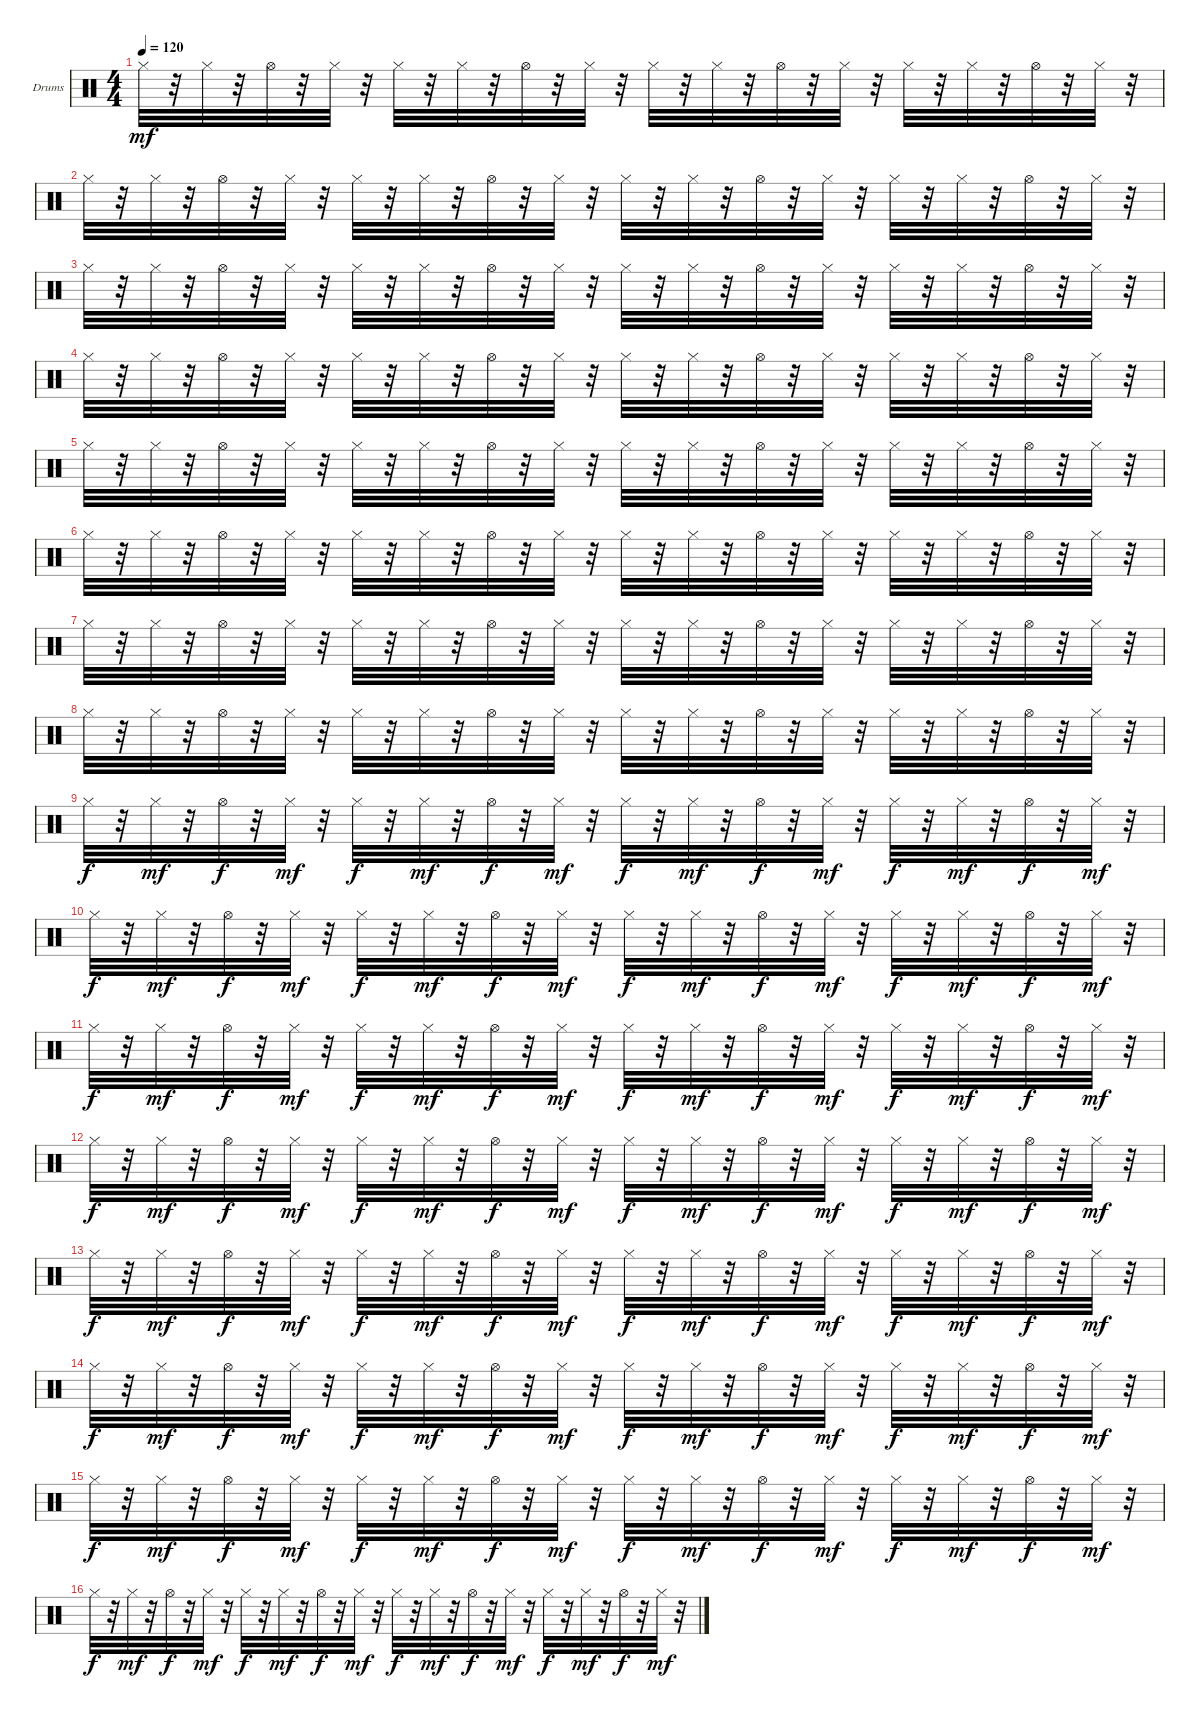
\defaultSystemsLayout 4
\bracketExtendMode groupsimilarinstruments
\firstSystemTrackNameOrientation horizontal
\otherSystemsTrackNameOrientation horizontal
\track ("Drumkit" "Drums") {instrument percussion}
\staff {score}
\articulation defaults
\ts (4 4)
\tempo 120
\clef neutral
\scale
0.333333
\ks c "Hi-Hat (closed)".32{dy mf}
r.32 "Hi-Hat (closed)".32 r.32 "Hi-Hat (open)".32 r.32 "Hi-Hat (closed)".32 r.32 "Hi-Hat (closed)".32 r.32 "Hi-Hat (closed)".32 r.32 "Hi-Hat (open)".32 r.32 "Hi-Hat (closed)".32 r.32 "Hi-Hat (closed)".32 r.32 "Hi-Hat (closed)".32 r.32 "Hi-Hat (open)".32 r.32 "Hi-Hat (closed)".32 r.32 "Hi-Hat (closed)".32 r.32 "Hi-Hat (closed)".32 r.32 "Hi-Hat (open)".32 r.32 "Hi-Hat (closed)".32 r.32 |
\scale
0.333333 "Hi-Hat (closed)".32 r.32 "Hi-Hat (closed)".32 r.32 "Hi-Hat (open)".32 r.32 "Hi-Hat (closed)".32 r.32 "Hi-Hat (closed)".32 r.32 "Hi-Hat (closed)".32 r.32 "Hi-Hat (open)".32 r.32 "Hi-Hat (closed)".32 r.32 "Hi-Hat (closed)".32 r.32 "Hi-Hat (closed)".32 r.32 "Hi-Hat (open)".32 r.32 "Hi-Hat (closed)".32 r.32 "Hi-Hat (closed)".32 r.32 "Hi-Hat (closed)".32 r.32 "Hi-Hat (open)".32 r.32 "Hi-Hat (closed)".32 r.32 |
\scale
0.333333 "Hi-Hat (closed)".32 r.32 "Hi-Hat (closed)".32 r.32 "Hi-Hat (open)".32 r.32 "Hi-Hat (closed)".32 r.32 "Hi-Hat (closed)".32 r.32 "Hi-Hat (closed)".32 r.32 "Hi-Hat (open)".32 r.32 "Hi-Hat (closed)".32 r.32 "Hi-Hat (closed)".32 r.32 "Hi-Hat (closed)".32 r.32 "Hi-Hat (open)".32 r.32 "Hi-Hat (closed)".32 r.32 "Hi-Hat (closed)".32 r.32 "Hi-Hat (closed)".32 r.32 "Hi-Hat (open)".32 r.32 "Hi-Hat (closed)".32 r.32 |
\scale
0.333333 "Hi-Hat (closed)".32 r.32 "Hi-Hat (closed)".32 r.32 "Hi-Hat (open)".32 r.32 "Hi-Hat (closed)".32 r.32 "Hi-Hat (closed)".32 r.32 "Hi-Hat (closed)".32 r.32 "Hi-Hat (open)".32 r.32 "Hi-Hat (closed)".32 r.32 "Hi-Hat (closed)".32 r.32 "Hi-Hat (closed)".32 r.32 "Hi-Hat (open)".32 r.32 "Hi-Hat (closed)".32 r.32 "Hi-Hat (closed)".32 r.32 "Hi-Hat (closed)".32 r.32 "Hi-Hat (open)".32 r.32 "Hi-Hat (closed)".32 r.32 |
\scale
0.333333 "Hi-Hat (closed)".32 r.32 "Hi-Hat (closed)".32 r.32 "Hi-Hat (open)".32 r.32 "Hi-Hat (closed)".32 r.32 "Hi-Hat (closed)".32 r.32 "Hi-Hat (closed)".32 r.32 "Hi-Hat (open)".32 r.32 "Hi-Hat (closed)".32 r.32 "Hi-Hat (closed)".32 r.32 "Hi-Hat (closed)".32 r.32 "Hi-Hat (open)".32 r.32 "Hi-Hat (closed)".32 r.32 "Hi-Hat (closed)".32 r.32 "Hi-Hat (closed)".32 r.32 "Hi-Hat (open)".32 r.32 "Hi-Hat (closed)".32 r.32 |
\scale
0.333333 "Hi-Hat (closed)".32 r.32 "Hi-Hat (closed)".32 r.32 "Hi-Hat (open)".32 r.32 "Hi-Hat (closed)".32 r.32 "Hi-Hat (closed)".32 r.32 "Hi-Hat (closed)".32 r.32 "Hi-Hat (open)".32 r.32 "Hi-Hat (closed)".32 r.32 "Hi-Hat (closed)".32 r.32 "Hi-Hat (closed)".32 r.32 "Hi-Hat (open)".32 r.32 "Hi-Hat (closed)".32 r.32 "Hi-Hat (closed)".32 r.32 "Hi-Hat (closed)".32 r.32 "Hi-Hat (open)".32 r.32 "Hi-Hat (closed)".32 r.32 |
"Hi-Hat (closed)".32 r.32 "Hi-Hat (closed)".32 r.32 "Hi-Hat (open)".32 r.32 "Hi-Hat (closed)".32 r.32 "Hi-Hat (closed)".32 r.32 "Hi-Hat (closed)".32 r.32 "Hi-Hat (open)".32 r.32 "Hi-Hat (closed)".32 r.32 "Hi-Hat (closed)".32 r.32 "Hi-Hat (closed)".32 r.32 "Hi-Hat (open)".32 r.32 "Hi-Hat (closed)".32 r.32 "Hi-Hat (closed)".32 r.32 "Hi-Hat (closed)".32 r.32 "Hi-Hat (open)".32 r.32 "Hi-Hat (closed)".32 r.32 |
"Hi-Hat (closed)".32 r.32 "Hi-Hat (closed)".32 r.32 "Hi-Hat (open)".32 r.32 "Hi-Hat (closed)".32 r.32 "Hi-Hat (closed)".32 r.32 "Hi-Hat (closed)".32 r.32 "Hi-Hat (open)".32 r.32 "Hi-Hat (closed)".32 r.32 "Hi-Hat (closed)".32 r.32 "Hi-Hat (closed)".32 r.32 "Hi-Hat (open)".32 r.32 "Hi-Hat (closed)".32 r.32 "Hi-Hat (closed)".32 r.32 "Hi-Hat (closed)".32 r.32 "Hi-Hat (open)".32 r.32 "Hi-Hat (closed)".32 r.32 |
"Hi-Hat (closed)".32{dy f} r.32 "Hi-Hat (closed)".32{dy mf} r.32 "Hi-Hat (open)".32{dy f} r.32 "Hi-Hat (closed)".32{dy mf} r.32 "Hi-Hat (closed)".32{dy f} r.32 "Hi-Hat (closed)".32{dy mf} r.32 "Hi-Hat (open)".32{dy f} r.32 "Hi-Hat (closed)".32{dy mf} r.32 "Hi-Hat (closed)".32{dy f} r.32 "Hi-Hat (closed)".32{dy mf} r.32 "Hi-Hat (open)".32{dy f} r.32 "Hi-Hat (closed)".32{dy mf} r.32 "Hi-Hat (closed)".32{dy f} r.32 "Hi-Hat (closed)".32{dy mf} r.32 "Hi-Hat (open)".32{dy f} r.32 "Hi-Hat (closed)".32{dy mf} r.32 |
"Hi-Hat (closed)".32{dy f} r.32 "Hi-Hat (closed)".32{dy mf} r.32 "Hi-Hat (open)".32{dy f} r.32 "Hi-Hat (closed)".32{dy mf} r.32 "Hi-Hat (closed)".32{dy f} r.32 "Hi-Hat (closed)".32{dy mf} r.32 "Hi-Hat (open)".32{dy f} r.32 "Hi-Hat (closed)".32{dy mf} r.32 "Hi-Hat (closed)".32{dy f} r.32 "Hi-Hat (closed)".32{dy mf} r.32 "Hi-Hat (open)".32{dy f} r.32 "Hi-Hat (closed)".32{dy mf} r.32 "Hi-Hat (closed)".32{dy f} r.32 "Hi-Hat (closed)".32{dy mf} r.32 "Hi-Hat (open)".32{dy f} r.32 "Hi-Hat (closed)".32{dy mf} r.32 |
"Hi-Hat (closed)".32{dy f} r.32 "Hi-Hat (closed)".32{dy mf} r.32 "Hi-Hat (open)".32{dy f} r.32 "Hi-Hat (closed)".32{dy mf} r.32 "Hi-Hat (closed)".32{dy f} r.32 "Hi-Hat (closed)".32{dy mf} r.32 "Hi-Hat (open)".32{dy f} r.32 "Hi-Hat (closed)".32{dy mf} r.32 "Hi-Hat (closed)".32{dy f} r.32 "Hi-Hat (closed)".32{dy mf} r.32 "Hi-Hat (open)".32{dy f} r.32 "Hi-Hat (closed)".32{dy mf} r.32 "Hi-Hat (closed)".32{dy f} r.32 "Hi-Hat (closed)".32{dy mf} r.32 "Hi-Hat (open)".32{dy f} r.32 "Hi-Hat (closed)".32{dy mf} r.32 |
"Hi-Hat (closed)".32{dy f} r.32 "Hi-Hat (closed)".32{dy mf} r.32 "Hi-Hat (open)".32{dy f} r.32 "Hi-Hat (closed)".32{dy mf} r.32 "Hi-Hat (closed)".32{dy f} r.32 "Hi-Hat (closed)".32{dy mf} r.32 "Hi-Hat (open)".32{dy f} r.32 "Hi-Hat (closed)".32{dy mf} r.32 "Hi-Hat (closed)".32{dy f} r.32 "Hi-Hat (closed)".32{dy mf} r.32 "Hi-Hat (open)".32{dy f} r.32 "Hi-Hat (closed)".32{dy mf} r.32 "Hi-Hat (closed)".32{dy f} r.32 "Hi-Hat (closed)".32{dy mf} r.32 "Hi-Hat (open)".32{dy f} r.32 "Hi-Hat (closed)".32{dy mf} r.32 |
"Hi-Hat (closed)".32{dy f} r.32 "Hi-Hat (closed)".32{dy mf} r.32 "Hi-Hat (open)".32{dy f} r.32 "Hi-Hat (closed)".32{dy mf} r.32 "Hi-Hat (closed)".32{dy f} r.32 "Hi-Hat (closed)".32{dy mf} r.32 "Hi-Hat (open)".32{dy f} r.32 "Hi-Hat (closed)".32{dy mf} r.32 "Hi-Hat (closed)".32{dy f} r.32 "Hi-Hat (closed)".32{dy mf} r.32 "Hi-Hat (open)".32{dy f} r.32 "Hi-Hat (closed)".32{dy mf} r.32 "Hi-Hat (closed)".32{dy f} r.32 "Hi-Hat (closed)".32{dy mf} r.32 "Hi-Hat (open)".32{dy f} r.32 "Hi-Hat (closed)".32{dy mf} r.32 |
"Hi-Hat (closed)".32{dy f} r.32 "Hi-Hat (closed)".32{dy mf} r.32 "Hi-Hat (open)".32{dy f} r.32 "Hi-Hat (closed)".32{dy mf} r.32 "Hi-Hat (closed)".32{dy f} r.32 "Hi-Hat (closed)".32{dy mf} r.32 "Hi-Hat (open)".32{dy f} r.32 "Hi-Hat (closed)".32{dy mf} r.32 "Hi-Hat (closed)".32{dy f} r.32 "Hi-Hat (closed)".32{dy mf} r.32 "Hi-Hat (open)".32{dy f} r.32 "Hi-Hat (closed)".32{dy mf} r.32 "Hi-Hat (closed)".32{dy f} r.32 "Hi-Hat (closed)".32{dy mf} r.32 "Hi-Hat (open)".32{dy f} r.32 "Hi-Hat (closed)".32{dy mf} r.32 |
"Hi-Hat (closed)".32{dy f} r.32 "Hi-Hat (closed)".32{dy mf} r.32 "Hi-Hat (open)".32{dy f} r.32 "Hi-Hat (closed)".32{dy mf} r.32 "Hi-Hat (closed)".32{dy f} r.32 "Hi-Hat (closed)".32{dy mf} r.32 "Hi-Hat (open)".32{dy f} r.32 "Hi-Hat (closed)".32{dy mf} r.32 "Hi-Hat (closed)".32{dy f} r.32 "Hi-Hat (closed)".32{dy mf} r.32 "Hi-Hat (open)".32{dy f} r.32 "Hi-Hat (closed)".32{dy mf} r.32 "Hi-Hat (closed)".32{dy f} r.32 "Hi-Hat (closed)".32{dy mf} r.32 "Hi-Hat (open)".32{dy f} r.32 "Hi-Hat (closed)".32{dy mf} r.32 |
"Hi-Hat (closed)".32{dy f} r.32 "Hi-Hat (closed)".32{dy mf} r.32 "Hi-Hat (open)".32{dy f} r.32 "Hi-Hat (closed)".32{dy mf} r.32 "Hi-Hat (closed)".32{dy f} r.32 "Hi-Hat (closed)".32{dy mf} r.32 "Hi-Hat (open)".32{dy f} r.32 "Hi-Hat (closed)".32{dy mf} r.32 "Hi-Hat (closed)".32{dy f} r.32 "Hi-Hat (closed)".32{dy mf} r.32 "Hi-Hat (open)".32{dy f} r.32 "Hi-Hat (closed)".32{dy mf} r.32 "Hi-Hat (closed)".32{dy f} r.32 "Hi-Hat (closed)".32{dy mf} r.32 "Hi-Hat (open)".32{dy f} r.32 "Hi-Hat (closed)".32{dy mf} r.32
